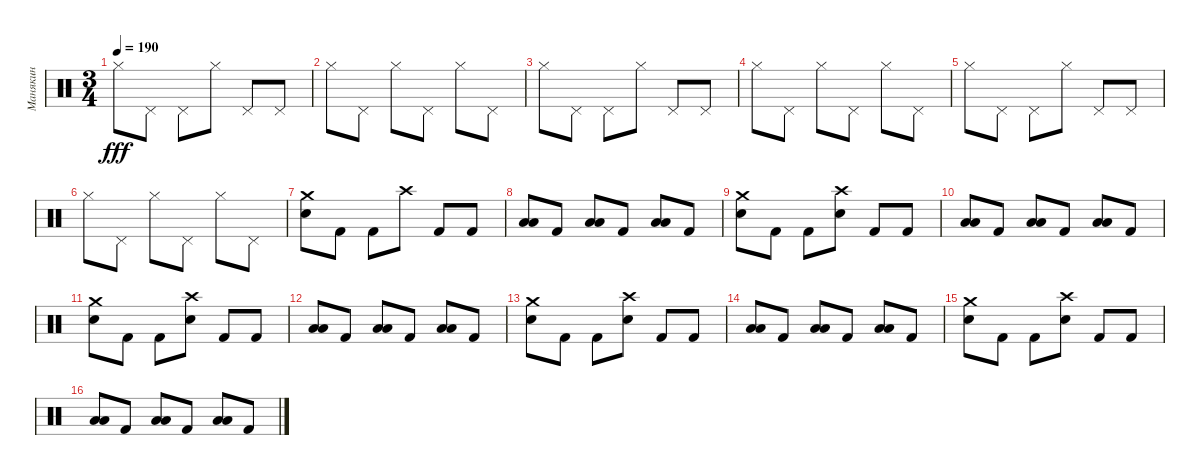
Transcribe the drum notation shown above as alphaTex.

\track ("Манякин" "Манякин") {instrument percussion}
\staff {score}
\articulation defaults
\ts (3 4)
\tempo 190
\clef neutral
\ks c "Hi-Hat (closed)".8{dy fff} "Pedal Hi-Hat (hit)".8 "Pedal Hi-Hat (hit)".8 "Hi-Hat (closed)".8 "Pedal Hi-Hat (hit)".8 "Pedal Hi-Hat (hit)".8
|
"Hi-Hat (closed)".8 "Pedal Hi-Hat (hit)".8 "Hi-Hat (closed)".8 "Pedal Hi-Hat (hit)".8 "Hi-Hat (closed)".8 "Pedal Hi-Hat (hit)".8 |
"Hi-Hat (closed)".8 "Pedal Hi-Hat (hit)".8 "Pedal Hi-Hat (hit)".8 "Hi-Hat (closed)".8 "Pedal Hi-Hat (hit)".8 "Pedal Hi-Hat (hit)".8 |
"Hi-Hat (closed)".8 "Pedal Hi-Hat (hit)".8 "Hi-Hat (closed)".8 "Pedal Hi-Hat (hit)".8 "Hi-Hat (closed)".8 "Pedal Hi-Hat (hit)".8 |
"Hi-Hat (closed)".8 "Pedal Hi-Hat (hit)".8 "Pedal Hi-Hat (hit)".8 "Hi-Hat (closed)".8 "Pedal Hi-Hat (hit)".8 "Pedal Hi-Hat (hit)".8 |
"Hi-Hat (closed)".8 "Pedal Hi-Hat (hit)".8 "Hi-Hat (closed)".8 "Pedal Hi-Hat (hit)".8 "Hi-Hat (closed)".8 "Pedal Hi-Hat (hit)".8 |
("Snare (hit) 2" "Crash medium (hit)").8 "Kick (hit) 2".8 "Kick (hit) 2".8 "Crash high (hit)".8 "Kick (hit) 2".8 "Kick (hit) 2".8 |
("Low Tom (hit)" "Low Floor Tom (hit)").8 "Kick (hit) 2".8 ("Low Floor Tom (hit)" "Low Tom (hit)").8 "Kick (hit) 2".8 ("Low Floor Tom (hit)" "Low Tom (hit)").8 "Kick (hit) 2".8 |
("Snare (hit) 2" "Crash medium (hit)").8 "Kick (hit) 2".8 "Kick (hit) 2".8 ("Crash high (hit)" "Snare (hit) 2").8 "Kick (hit) 2".8 "Kick (hit) 2".8 |
("Low Tom (hit)" "Low Floor Tom (hit)").8 "Kick (hit) 2".8 ("Low Floor Tom (hit)" "Low Tom (hit)").8 "Kick (hit) 2".8 ("Low Floor Tom (hit)" "Low Tom (hit)").8 "Kick (hit) 2".8 |
("Snare (hit) 2" "Crash medium (hit)").8 "Kick (hit) 2".8 "Kick (hit) 2".8 ("Crash high (hit)" "Snare (hit) 2").8 "Kick (hit) 2".8 "Kick (hit) 2".8 |
("Low Tom (hit)" "Low Floor Tom (hit)").8 "Kick (hit) 2".8 ("Low Floor Tom (hit)" "Low Tom (hit)").8 "Kick (hit) 2".8 ("Low Floor Tom (hit)" "Low Tom (hit)").8 "Kick (hit) 2".8 |
("Snare (hit) 2" "Crash medium (hit)").8 "Kick (hit) 2".8 "Kick (hit) 2".8 ("Crash high (hit)" "Snare (hit) 2").8 "Kick (hit) 2".8 "Kick (hit) 2".8 |
("Low Tom (hit)" "Low Floor Tom (hit)").8 "Kick (hit) 2".8 ("Low Floor Tom (hit)" "Low Tom (hit)").8 "Kick (hit) 2".8 ("Low Floor Tom (hit)" "Low Tom (hit)").8 "Kick (hit) 2".8 |
("Snare (hit) 2" "Crash medium (hit)").8 "Kick (hit) 2".8 "Kick (hit) 2".8 ("Crash high (hit)" "Snare (hit) 2").8 "Kick (hit) 2".8 "Kick (hit) 2".8 |
("Low Tom (hit)" "Low Floor Tom (hit)").8 "Kick (hit) 2".8 ("Low Floor Tom (hit)" "Low Tom (hit)").8 "Kick (hit) 2".8 ("Low Floor Tom (hit)" "Low Tom (hit)").8 "Kick (hit) 2".8
